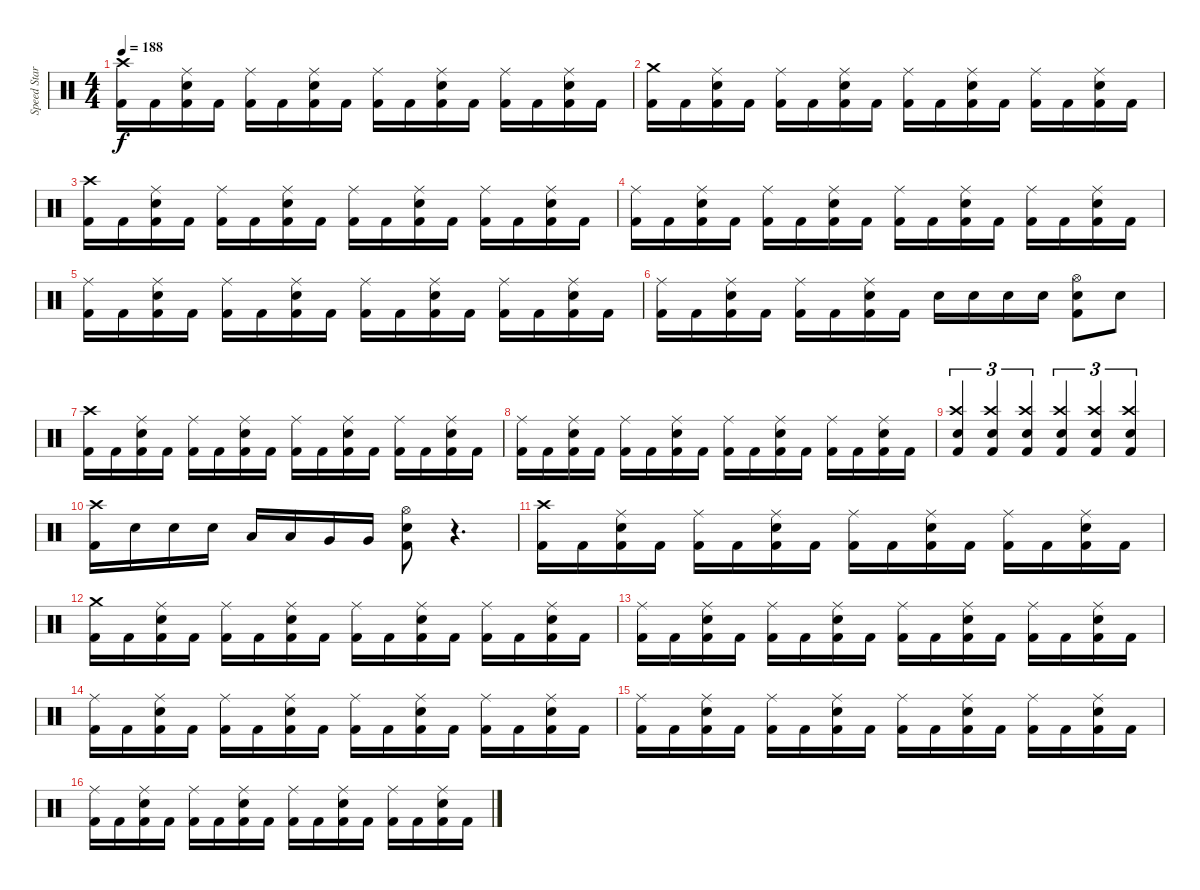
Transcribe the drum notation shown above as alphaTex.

\track ("Speed Star Sypan Joe" "Speed Star") {instrument percussion}
\staff {score}
\articulation defaults
\ts (4 4)
\tempo 188
\clef neutral
\ks c
("Kick (hit) 2" "Crash high (hit)").16{dy f} "Kick (hit) 2".16 ("Kick (hit) 2" "Electric Snare (hit)" "Ride (middle)").16 "Kick (hit) 2".16 ("Kick (hit) 2" "Ride (middle)").16 "Kick (hit) 2".16 ("Kick (hit) 2" "Electric Snare (hit)" "Ride (middle)").16 "Kick (hit) 2".16 ("Kick (hit) 2" "Ride (middle)").16 "Kick (hit) 2".16 ("Kick (hit) 2" "Electric Snare (hit)" "Ride (middle)").16 "Kick (hit) 2".16 ("Kick (hit) 2" "Ride (middle)").16 "Kick (hit) 2".16 ("Kick (hit) 2" "Electric Snare (hit)" "Ride (middle)").16 "Kick (hit) 2".16 |
("Kick (hit) 2" "Crash medium (hit)").16 "Kick (hit) 2".16 ("Kick (hit) 2" "Electric Snare (hit)" "Ride (middle)").16 "Kick (hit) 2".16 ("Kick (hit) 2" "Ride (middle)").16 "Kick (hit) 2".16 ("Kick (hit) 2" "Electric Snare (hit)" "Ride (middle)").16 "Kick (hit) 2".16 ("Kick (hit) 2" "Ride (middle)").16 "Kick (hit) 2".16 ("Kick (hit) 2" "Electric Snare (hit)" "Ride (middle)").16 "Kick (hit) 2".16 ("Kick (hit) 2" "Ride (middle)").16 "Kick (hit) 2".16 ("Kick (hit) 2" "Electric Snare (hit)" "Ride (middle)").16 "Kick (hit) 2".16 |
("Kick (hit) 2" "Crash high (hit)").16 "Kick (hit) 2".16 ("Kick (hit) 2" "Electric Snare (hit)" "Ride (middle)").16 "Kick (hit) 2".16 ("Kick (hit) 2" "Ride (middle)").16 "Kick (hit) 2".16 ("Kick (hit) 2" "Electric Snare (hit)" "Ride (middle)").16 "Kick (hit) 2".16 ("Kick (hit) 2" "Ride (middle)").16 "Kick (hit) 2".16 ("Kick (hit) 2" "Electric Snare (hit)" "Ride (middle)").16 "Kick (hit) 2".16 ("Kick (hit) 2" "Ride (middle)").16 "Kick (hit) 2".16 ("Kick (hit) 2" "Electric Snare (hit)" "Ride (middle)").16 "Kick (hit) 2".16 |
("Kick (hit) 2" "Ride (middle)").16 "Kick (hit) 2".16 ("Kick (hit) 2" "Electric Snare (hit)" "Ride (middle)").16 "Kick (hit) 2".16 ("Kick (hit) 2" "Ride (middle)").16 "Kick (hit) 2".16 ("Kick (hit) 2" "Electric Snare (hit)" "Ride (middle)").16 "Kick (hit) 2".16 ("Kick (hit) 2" "Ride (middle)").16 "Kick (hit) 2".16 ("Kick (hit) 2" "Electric Snare (hit)" "Ride (middle)").16 "Kick (hit) 2".16 ("Kick (hit) 2" "Ride (middle)").16 "Kick (hit) 2".16 ("Kick (hit) 2" "Electric Snare (hit)" "Ride (middle)").16 "Kick (hit) 2".16 |
("Kick (hit) 2" "Ride (middle)").16 "Kick (hit) 2".16 ("Kick (hit) 2" "Electric Snare (hit)" "Ride (middle)").16 "Kick (hit) 2".16 ("Kick (hit) 2" "Ride (middle)").16 "Kick (hit) 2".16 ("Kick (hit) 2" "Electric Snare (hit)" "Ride (middle)").16 "Kick (hit) 2".16 ("Kick (hit) 2" "Ride (middle)").16 "Kick (hit) 2".16 ("Kick (hit) 2" "Electric Snare (hit)" "Ride (middle)").16 "Kick (hit) 2".16 ("Kick (hit) 2" "Ride (middle)").16 "Kick (hit) 2".16 ("Kick (hit) 2" "Electric Snare (hit)" "Ride (middle)").16 "Kick (hit) 2".16 |
("Kick (hit) 2" "Ride (middle)").16 "Kick (hit) 2".16 ("Kick (hit) 2" "Electric Snare (hit)" "Ride (middle)").16 "Kick (hit) 2".16 ("Kick (hit) 2" "Ride (middle)").16 "Kick (hit) 2".16 ("Kick (hit) 2" "Electric Snare (hit)" "Ride (middle)").16 "Kick (hit) 2".16 "Electric Snare (hit)".16 "Electric Snare (hit)".16 "Electric Snare (hit)".16 "Electric Snare (hit)".16 ("Electric Snare (hit)" "Kick (hit) 2" "Hi-Hat (open)").8 "Electric Snare (hit)".8 |
("Kick (hit) 2" "Crash high (hit)").16 "Kick (hit) 2".16 ("Kick (hit) 2" "Electric Snare (hit)" "Ride (middle)").16 "Kick (hit) 2".16 ("Kick (hit) 2" "Ride (middle)").16 "Kick (hit) 2".16 ("Kick (hit) 2" "Electric Snare (hit)" "Ride (middle)").16 "Kick (hit) 2".16 ("Kick (hit) 2" "Ride (middle)").16 "Kick (hit) 2".16 ("Kick (hit) 2" "Electric Snare (hit)" "Ride (middle)").16 "Kick (hit) 2".16 ("Kick (hit) 2" "Ride (middle)").16 "Kick (hit) 2".16 ("Kick (hit) 2" "Electric Snare (hit)" "Ride (middle)").16 "Kick (hit) 2".16 |
("Kick (hit) 2" "Ride (middle)").16 "Kick (hit) 2".16 ("Kick (hit) 2" "Electric Snare (hit)" "Ride (middle)").16 "Kick (hit) 2".16 ("Kick (hit) 2" "Ride (middle)").16 "Kick (hit) 2".16 ("Kick (hit) 2" "Electric Snare (hit)" "Ride (middle)").16 "Kick (hit) 2".16 ("Kick (hit) 2" "Ride (middle)").16 "Kick (hit) 2".16 ("Kick (hit) 2" "Electric Snare (hit)" "Ride (middle)").16 "Kick (hit) 2".16 ("Kick (hit) 2" "Ride (middle)").16 "Kick (hit) 2".16 ("Kick (hit) 2" "Electric Snare (hit)" "Ride (middle)").16 "Kick (hit) 2".16 |
("Kick (hit) 2" "Electric Snare (hit)" "Crash high (hit)").4{tu (3 2)} ("Kick (hit) 2" "Electric Snare (hit)" "Crash high (hit)").4{tu (3 2)} ("Kick (hit) 2" "Electric Snare (hit)" "Crash high (hit)").4{tu (3 2)} ("Kick (hit) 2" "Electric Snare (hit)" "Crash high (hit)").4{tu (3 2)} ("Kick (hit) 2" "Electric Snare (hit)" "Crash high (hit)").4{tu (3 2)} ("Kick (hit) 2" "Electric Snare (hit)" "Crash high (hit)").4{tu (3 2)} |
("Kick (hit) 2" "Crash high (hit)").16 "Electric Snare (hit)".16 "Electric Snare (hit)".16 "Electric Snare (hit)".16 "Low Tom (hit)".16 "Low Tom (hit)".16 "Very Low Tom (hit)".16 "Very Low Tom (hit)".16 ("Electric Snare (hit)" "Kick (hit) 2" "Hi-Hat (open)").8 r.4{d} |
("Kick (hit) 2" "Crash high (hit)").16 "Kick (hit) 2".16 ("Kick (hit) 2" "Electric Snare (hit)" "Ride (middle)").16 "Kick (hit) 2".16 ("Kick (hit) 2" "Ride (middle)").16 "Kick (hit) 2".16 ("Kick (hit) 2" "Electric Snare (hit)" "Ride (middle)").16 "Kick (hit) 2".16 ("Kick (hit) 2" "Ride (middle)").16 "Kick (hit) 2".16 ("Kick (hit) 2" "Electric Snare (hit)" "Ride (middle)").16 "Kick (hit) 2".16 ("Kick (hit) 2" "Ride (middle)").16 "Kick (hit) 2".16 ("Kick (hit) 2" "Electric Snare (hit)" "Ride (middle)").16 "Kick (hit) 2".16 |
("Kick (hit) 2" "Crash medium (hit)").16 "Kick (hit) 2".16 ("Kick (hit) 2" "Electric Snare (hit)" "Ride (middle)").16 "Kick (hit) 2".16 ("Kick (hit) 2" "Ride (middle)").16 "Kick (hit) 2".16 ("Kick (hit) 2" "Electric Snare (hit)" "Ride (middle)").16 "Kick (hit) 2".16 ("Kick (hit) 2" "Ride (middle)").16 "Kick (hit) 2".16 ("Kick (hit) 2" "Electric Snare (hit)" "Ride (middle)").16 "Kick (hit) 2".16 ("Kick (hit) 2" "Ride (middle)").16 "Kick (hit) 2".16 ("Kick (hit) 2" "Electric Snare (hit)" "Ride (middle)").16 "Kick (hit) 2".16 |
("Kick (hit) 2" "Ride (middle)").16 "Kick (hit) 2".16 ("Kick (hit) 2" "Electric Snare (hit)" "Ride (middle)").16 "Kick (hit) 2".16 ("Kick (hit) 2" "Ride (middle)").16 "Kick (hit) 2".16 ("Kick (hit) 2" "Electric Snare (hit)" "Ride (middle)").16 "Kick (hit) 2".16 ("Kick (hit) 2" "Ride (middle)").16 "Kick (hit) 2".16 ("Kick (hit) 2" "Electric Snare (hit)" "Ride (middle)").16 "Kick (hit) 2".16 ("Kick (hit) 2" "Ride (middle)").16 "Kick (hit) 2".16 ("Kick (hit) 2" "Electric Snare (hit)" "Ride (middle)").16 "Kick (hit) 2".16 |
("Kick (hit) 2" "Ride (middle)").16 "Kick (hit) 2".16 ("Kick (hit) 2" "Electric Snare (hit)" "Ride (middle)").16 "Kick (hit) 2".16 ("Kick (hit) 2" "Ride (middle)").16 "Kick (hit) 2".16 ("Kick (hit) 2" "Electric Snare (hit)" "Ride (middle)").16 "Kick (hit) 2".16 ("Kick (hit) 2" "Ride (middle)").16 "Kick (hit) 2".16 ("Kick (hit) 2" "Electric Snare (hit)" "Ride (middle)").16 "Kick (hit) 2".16 ("Kick (hit) 2" "Ride (middle)").16 "Kick (hit) 2".16 ("Kick (hit) 2" "Electric Snare (hit)" "Ride (middle)").16 "Kick (hit) 2".16 |
("Kick (hit) 2" "Ride (middle)").16 "Kick (hit) 2".16 ("Kick (hit) 2" "Electric Snare (hit)" "Ride (middle)").16 "Kick (hit) 2".16 ("Kick (hit) 2" "Ride (middle)").16 "Kick (hit) 2".16 ("Kick (hit) 2" "Electric Snare (hit)" "Ride (middle)").16 "Kick (hit) 2".16 ("Kick (hit) 2" "Ride (middle)").16 "Kick (hit) 2".16 ("Kick (hit) 2" "Electric Snare (hit)" "Ride (middle)").16 "Kick (hit) 2".16 ("Kick (hit) 2" "Ride (middle)").16 "Kick (hit) 2".16 ("Kick (hit) 2" "Electric Snare (hit)" "Ride (middle)").16 "Kick (hit) 2".16 |
("Kick (hit) 2" "Ride (middle)").16 "Kick (hit) 2".16 ("Kick (hit) 2" "Electric Snare (hit)" "Ride (middle)").16 "Kick (hit) 2".16 ("Kick (hit) 2" "Ride (middle)").16 "Kick (hit) 2".16 ("Kick (hit) 2" "Electric Snare (hit)" "Ride (middle)").16 "Kick (hit) 2".16 ("Kick (hit) 2" "Ride (middle)").16 "Kick (hit) 2".16 ("Kick (hit) 2" "Electric Snare (hit)" "Ride (middle)").16 "Kick (hit) 2".16 ("Kick (hit) 2" "Ride (middle)").16 "Kick (hit) 2".16 ("Kick (hit) 2" "Electric Snare (hit)" "Ride (middle)").16 "Kick (hit) 2".16
